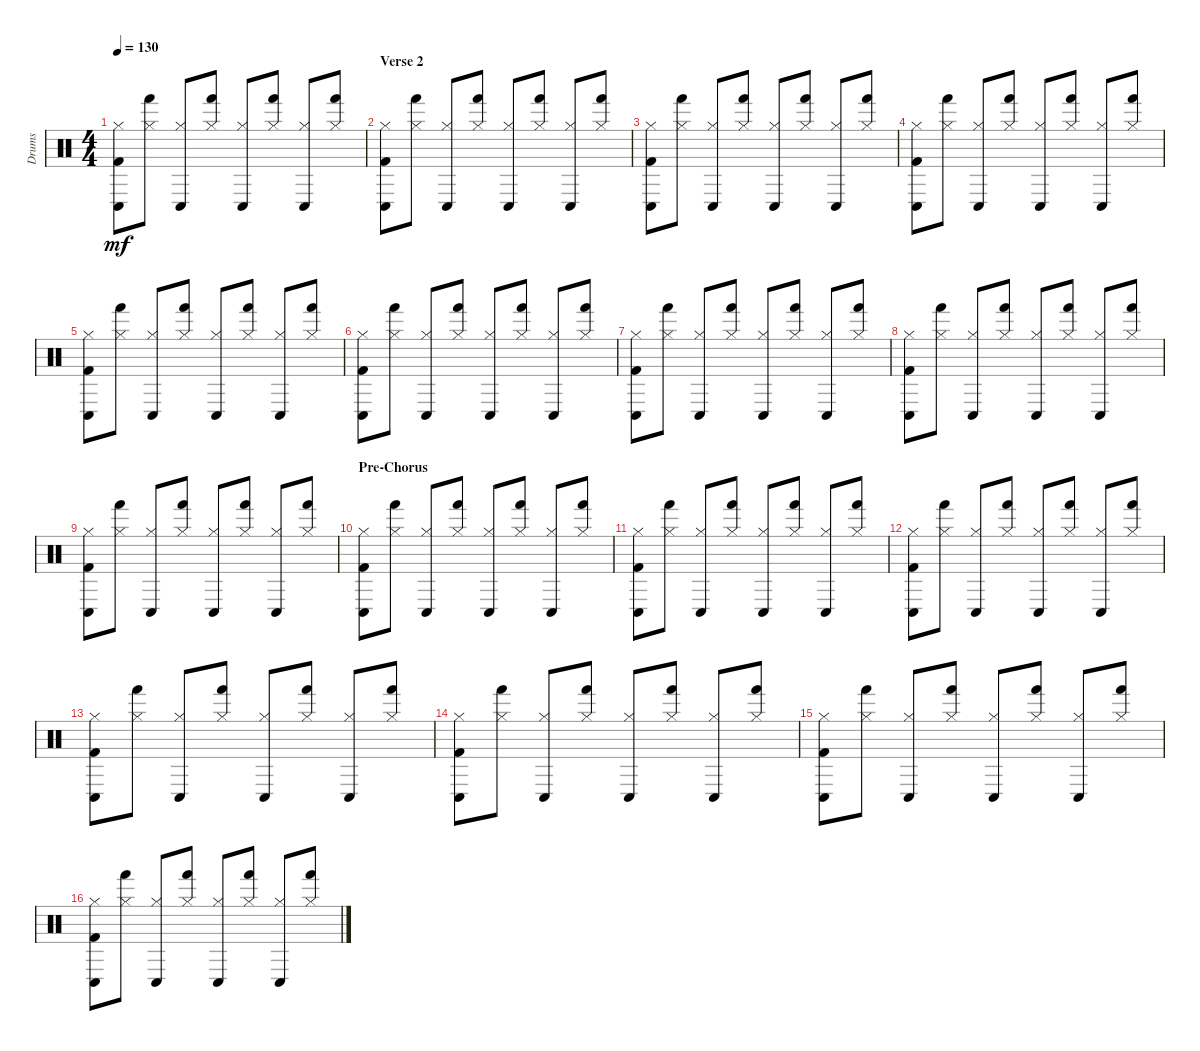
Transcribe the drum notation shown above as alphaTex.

\track ("Drums" "Drums") {instrument percussion}
\staff {score}
\articulation defaults
\ts (4 4)
\tempo 130
\clef neutral
\ks c
("Kick (hit) 2" "Conga low (hit)" "Hi-Hat (closed)").8{dy mf} ("Hand (hit)" "Hi-Hat (closed)").8 ("Hi-Hat (closed)" "Conga low (hit)").8 ("Hand (hit)" "Hi-Hat (closed)").8 ("Conga low (hit)" "Hi-Hat (closed)").8 ("Hi-Hat (closed)" "Hand (hit)").8 ("Hi-Hat (closed)" "Conga low (hit)").8 ("Hi-Hat (closed)" "Hand (hit)").8 |
\section ("" "Verse 2")
("Kick (hit) 2" "Conga low (hit)" "Hi-Hat (closed)").8 ("Hand (hit)" "Hi-Hat (closed)").8 ("Hi-Hat (closed)" "Conga low (hit)").8 ("Hand (hit)" "Hi-Hat (closed)").8 ("Conga low (hit)" "Hi-Hat (closed)").8 ("Hi-Hat (closed)" "Hand (hit)").8 ("Hi-Hat (closed)" "Conga low (hit)").8 ("Hi-Hat (closed)" "Hand (hit)").8 |
("Kick (hit) 2" "Conga low (hit)" "Hi-Hat (closed)").8 ("Hand (hit)" "Hi-Hat (closed)").8 ("Hi-Hat (closed)" "Conga low (hit)").8 ("Hand (hit)" "Hi-Hat (closed)").8 ("Conga low (hit)" "Hi-Hat (closed)").8 ("Hi-Hat (closed)" "Hand (hit)").8 ("Hi-Hat (closed)" "Conga low (hit)").8 ("Hi-Hat (closed)" "Hand (hit)").8 |
("Kick (hit) 2" "Conga low (hit)" "Hi-Hat (closed)").8 ("Hand (hit)" "Hi-Hat (closed)").8 ("Hi-Hat (closed)" "Conga low (hit)").8 ("Hand (hit)" "Hi-Hat (closed)").8 ("Conga low (hit)" "Hi-Hat (closed)").8 ("Hi-Hat (closed)" "Hand (hit)").8 ("Hi-Hat (closed)" "Conga low (hit)").8 ("Hi-Hat (closed)" "Hand (hit)").8 |
("Kick (hit) 2" "Conga low (hit)" "Hi-Hat (closed)").8 ("Hand (hit)" "Hi-Hat (closed)").8 ("Hi-Hat (closed)" "Conga low (hit)").8 ("Hand (hit)" "Hi-Hat (closed)").8 ("Conga low (hit)" "Hi-Hat (closed)").8 ("Hi-Hat (closed)" "Hand (hit)").8 ("Hi-Hat (closed)" "Conga low (hit)").8 ("Hi-Hat (closed)" "Hand (hit)").8 |
("Kick (hit) 2" "Conga low (hit)" "Hi-Hat (closed)").8 ("Hand (hit)" "Hi-Hat (closed)").8 ("Hi-Hat (closed)" "Conga low (hit)").8 ("Hand (hit)" "Hi-Hat (closed)").8 ("Conga low (hit)" "Hi-Hat (closed)").8 ("Hi-Hat (closed)" "Hand (hit)").8 ("Hi-Hat (closed)" "Conga low (hit)").8 ("Hi-Hat (closed)" "Hand (hit)").8 |
("Kick (hit) 2" "Conga low (hit)" "Hi-Hat (closed)").8 ("Hand (hit)" "Hi-Hat (closed)").8 ("Hi-Hat (closed)" "Conga low (hit)").8 ("Hand (hit)" "Hi-Hat (closed)").8 ("Conga low (hit)" "Hi-Hat (closed)").8 ("Hi-Hat (closed)" "Hand (hit)").8 ("Hi-Hat (closed)" "Conga low (hit)").8 ("Hi-Hat (closed)" "Hand (hit)").8 |
("Kick (hit) 2" "Conga low (hit)" "Hi-Hat (closed)").8 ("Hand (hit)" "Hi-Hat (closed)").8 ("Hi-Hat (closed)" "Conga low (hit)").8 ("Hand (hit)" "Hi-Hat (closed)").8 ("Conga low (hit)" "Hi-Hat (closed)").8 ("Hi-Hat (closed)" "Hand (hit)").8 ("Hi-Hat (closed)" "Conga low (hit)").8 ("Hi-Hat (closed)" "Hand (hit)").8 |
("Kick (hit) 2" "Conga low (hit)" "Hi-Hat (closed)").8 ("Hand (hit)" "Hi-Hat (closed)").8 ("Hi-Hat (closed)" "Conga low (hit)").8 ("Hand (hit)" "Hi-Hat (closed)").8 ("Conga low (hit)" "Hi-Hat (closed)").8 ("Hi-Hat (closed)" "Hand (hit)").8 ("Hi-Hat (closed)" "Conga low (hit)").8 ("Hi-Hat (closed)" "Hand (hit)").8 |
\section ("" "Pre-Chorus")
("Kick (hit) 2" "Conga low (hit)" "Hi-Hat (closed)").8 ("Hand (hit)" "Hi-Hat (closed)").8 ("Hi-Hat (closed)" "Conga low (hit)").8 ("Hand (hit)" "Hi-Hat (closed)").8 ("Conga low (hit)" "Hi-Hat (closed)").8 ("Hi-Hat (closed)" "Hand (hit)").8 ("Hi-Hat (closed)" "Conga low (hit)").8 ("Hi-Hat (closed)" "Hand (hit)").8 |
("Kick (hit) 2" "Conga low (hit)" "Hi-Hat (closed)").8 ("Hand (hit)" "Hi-Hat (closed)").8 ("Hi-Hat (closed)" "Conga low (hit)").8 ("Hand (hit)" "Hi-Hat (closed)").8 ("Conga low (hit)" "Hi-Hat (closed)").8 ("Hi-Hat (closed)" "Hand (hit)").8 ("Hi-Hat (closed)" "Conga low (hit)").8 ("Hi-Hat (closed)" "Hand (hit)").8 |
("Kick (hit) 2" "Conga low (hit)" "Hi-Hat (closed)").8 ("Hand (hit)" "Hi-Hat (closed)").8 ("Hi-Hat (closed)" "Conga low (hit)").8 ("Hand (hit)" "Hi-Hat (closed)").8 ("Conga low (hit)" "Hi-Hat (closed)").8 ("Hi-Hat (closed)" "Hand (hit)").8 ("Hi-Hat (closed)" "Conga low (hit)").8 ("Hi-Hat (closed)" "Hand (hit)").8 |
("Kick (hit) 2" "Conga low (hit)" "Hi-Hat (closed)").8 ("Hand (hit)" "Hi-Hat (closed)").8 ("Hi-Hat (closed)" "Conga low (hit)").8 ("Hand (hit)" "Hi-Hat (closed)").8 ("Conga low (hit)" "Hi-Hat (closed)").8 ("Hi-Hat (closed)" "Hand (hit)").8 ("Hi-Hat (closed)" "Conga low (hit)").8 ("Hi-Hat (closed)" "Hand (hit)").8 |
("Kick (hit) 2" "Conga low (hit)" "Hi-Hat (closed)").8 ("Hand (hit)" "Hi-Hat (closed)").8 ("Hi-Hat (closed)" "Conga low (hit)").8 ("Hand (hit)" "Hi-Hat (closed)").8 ("Conga low (hit)" "Hi-Hat (closed)").8 ("Hi-Hat (closed)" "Hand (hit)").8 ("Hi-Hat (closed)" "Conga low (hit)").8 ("Hi-Hat (closed)" "Hand (hit)").8 |
("Kick (hit) 2" "Conga low (hit)" "Hi-Hat (closed)").8 ("Hand (hit)" "Hi-Hat (closed)").8 ("Hi-Hat (closed)" "Conga low (hit)").8 ("Hand (hit)" "Hi-Hat (closed)").8 ("Conga low (hit)" "Hi-Hat (closed)").8 ("Hi-Hat (closed)" "Hand (hit)").8 ("Hi-Hat (closed)" "Conga low (hit)").8 ("Hi-Hat (closed)" "Hand (hit)").8 |
("Kick (hit) 2" "Conga low (hit)" "Hi-Hat (closed)").8 ("Hand (hit)" "Hi-Hat (closed)").8 ("Hi-Hat (closed)" "Conga low (hit)").8 ("Hand (hit)" "Hi-Hat (closed)").8 ("Conga low (hit)" "Hi-Hat (closed)").8 ("Hi-Hat (closed)" "Hand (hit)").8 ("Hi-Hat (closed)" "Conga low (hit)").8 ("Hi-Hat (closed)" "Hand (hit)").8
